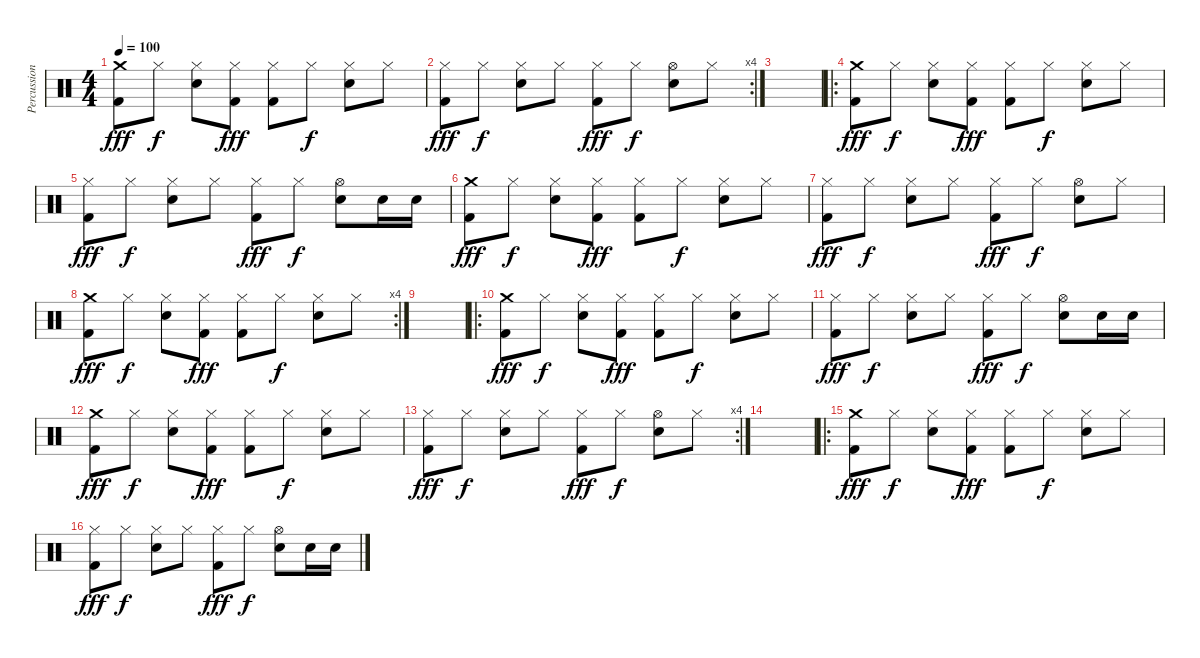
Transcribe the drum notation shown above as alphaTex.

\track ("Percussion" "Percussion") {instrument percussion}
\staff {score}
\articulation defaults
\ts (4 4)
\tempo 100
\clef neutral
\ks c
("Crash medium (hit)" "Kick (hit) 2").8{dy fff} "Hi-Hat (closed)".8{dy f} ("Hi-Hat (closed)" "Electric Snare (hit)").8 ("Hi-Hat (closed)" "Kick (hit) 2").8{dy fff} ("Hi-Hat (closed)" "Kick (hit) 2").8 "Hi-Hat (closed)".8{dy f} ("Hi-Hat (closed)" "Electric Snare (hit)").8 "Hi-Hat (closed)".8 |
\rc 4
("Hi-Hat (closed)" "Kick (hit) 2").8{dy fff} "Hi-Hat (closed)".8{dy f} ("Hi-Hat (closed)" "Electric Snare (hit)").8 "Hi-Hat (closed)".8 ("Hi-Hat (closed)" "Kick (hit) 2").8{dy fff} "Hi-Hat (closed)".8{dy f} ("Hi-Hat (open)" "Electric Snare (hit)").8 "Hi-Hat (closed)".8 |
|
\ro
("Crash medium (hit)" "Kick (hit) 2").8{dy fff} "Hi-Hat (closed)".8{dy f} ("Hi-Hat (closed)" "Electric Snare (hit)").8 ("Hi-Hat (closed)" "Kick (hit) 2").8{dy fff} ("Hi-Hat (closed)" "Kick (hit) 2").8 "Hi-Hat (closed)".8{dy f} ("Hi-Hat (closed)" "Electric Snare (hit)").8 "Hi-Hat (closed)".8 |
("Hi-Hat (closed)" "Kick (hit) 2").8{dy fff} "Hi-Hat (closed)".8{dy f} ("Hi-Hat (closed)" "Electric Snare (hit)").8 "Hi-Hat (closed)".8 ("Hi-Hat (closed)" "Kick (hit) 2").8{dy fff} "Hi-Hat (closed)".8{dy f} ("Hi-Hat (open)" "Electric Snare (hit)").8 "Electric Snare (hit)".16 "Electric Snare (hit)".16 |
("Crash medium (hit)" "Kick (hit) 2").8{dy fff} "Hi-Hat (closed)".8{dy f} ("Hi-Hat (closed)" "Electric Snare (hit)").8 ("Hi-Hat (closed)" "Kick (hit) 2").8{dy fff} ("Hi-Hat (closed)" "Kick (hit) 2").8 "Hi-Hat (closed)".8{dy f} ("Hi-Hat (closed)" "Electric Snare (hit)").8 "Hi-Hat (closed)".8 |
("Hi-Hat (closed)" "Kick (hit) 2").8{dy fff} "Hi-Hat (closed)".8{dy f} ("Hi-Hat (closed)" "Electric Snare (hit)").8 "Hi-Hat (closed)".8 ("Hi-Hat (closed)" "Kick (hit) 2").8{dy fff} "Hi-Hat (closed)".8{dy f} ("Hi-Hat (open)" "Electric Snare (hit)").8 "Hi-Hat (closed)".8 |
\rc 4
("Crash medium (hit)" "Kick (hit) 2").8{dy fff} "Hi-Hat (closed)".8{dy f} ("Hi-Hat (closed)" "Electric Snare (hit)").8 ("Hi-Hat (closed)" "Kick (hit) 2").8{dy fff} ("Hi-Hat (closed)" "Kick (hit) 2").8 "Hi-Hat (closed)".8{dy f} ("Hi-Hat (closed)" "Electric Snare (hit)").8 "Hi-Hat (closed)".8 |
|
\ro
("Crash medium (hit)" "Kick (hit) 2").8{dy fff} "Hi-Hat (closed)".8{dy f} ("Hi-Hat (closed)" "Electric Snare (hit)").8 ("Hi-Hat (closed)" "Kick (hit) 2").8{dy fff} ("Hi-Hat (closed)" "Kick (hit) 2").8 "Hi-Hat (closed)".8{dy f} ("Hi-Hat (closed)" "Electric Snare (hit)").8 "Hi-Hat (closed)".8 |
("Hi-Hat (closed)" "Kick (hit) 2").8{dy fff} "Hi-Hat (closed)".8{dy f} ("Hi-Hat (closed)" "Electric Snare (hit)").8 "Hi-Hat (closed)".8 ("Hi-Hat (closed)" "Kick (hit) 2").8{dy fff} "Hi-Hat (closed)".8{dy f} ("Hi-Hat (open)" "Electric Snare (hit)").8 "Electric Snare (hit)".16 "Electric Snare (hit)".16 |
("Crash medium (hit)" "Kick (hit) 2").8{dy fff} "Hi-Hat (closed)".8{dy f} ("Hi-Hat (closed)" "Electric Snare (hit)").8 ("Hi-Hat (closed)" "Kick (hit) 2").8{dy fff} ("Hi-Hat (closed)" "Kick (hit) 2").8 "Hi-Hat (closed)".8{dy f} ("Hi-Hat (closed)" "Electric Snare (hit)").8 "Hi-Hat (closed)".8 |
\rc 4
("Hi-Hat (closed)" "Kick (hit) 2").8{dy fff} "Hi-Hat (closed)".8{dy f} ("Hi-Hat (closed)" "Electric Snare (hit)").8 "Hi-Hat (closed)".8 ("Hi-Hat (closed)" "Kick (hit) 2").8{dy fff} "Hi-Hat (closed)".8{dy f} ("Hi-Hat (open)" "Electric Snare (hit)").8 "Hi-Hat (closed)".8 |
|
\ro
("Crash medium (hit)" "Kick (hit) 2").8{dy fff} "Hi-Hat (closed)".8{dy f} ("Hi-Hat (closed)" "Electric Snare (hit)").8 ("Hi-Hat (closed)" "Kick (hit) 2").8{dy fff} ("Hi-Hat (closed)" "Kick (hit) 2").8 "Hi-Hat (closed)".8{dy f} ("Hi-Hat (closed)" "Electric Snare (hit)").8 "Hi-Hat (closed)".8 |
("Hi-Hat (closed)" "Kick (hit) 2").8{dy fff} "Hi-Hat (closed)".8{dy f} ("Hi-Hat (closed)" "Electric Snare (hit)").8 "Hi-Hat (closed)".8 ("Hi-Hat (closed)" "Kick (hit) 2").8{dy fff} "Hi-Hat (closed)".8{dy f} ("Hi-Hat (open)" "Electric Snare (hit)").8 "Electric Snare (hit)".16 "Electric Snare (hit)".16
